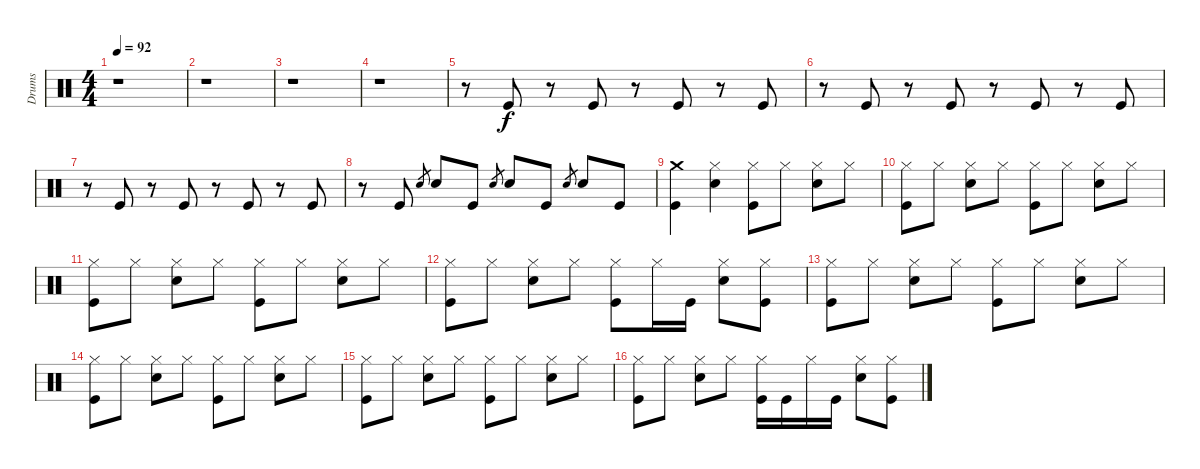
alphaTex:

\track ("Drums" "Drums") {instrument percussion}
\staff {score}
\articulation defaults
\ts (4 4)
\tempo 92
\clef neutral
\ks c
r.1{dy f} |
r.1 |
r.1 |
r.1 |
r.8 "Kick (hit)".8 r.8 "Kick (hit)".8 r.8 "Kick (hit)".8 r.8 "Kick (hit)".8 |
r.8 "Kick (hit)".8 r.8 "Kick (hit)".8 r.8 "Kick (hit)".8 r.8 "Kick (hit)".8 |
r.8 "Kick (hit)".8 r.8 "Kick (hit)".8 r.8 "Kick (hit)".8 r.8 "Kick (hit)".8 |
r.8 "Kick (hit)".8 "Electric Snare (hit)".8{gr} "Electric Snare (hit)".8 "Kick (hit)".8 "Electric Snare (hit)".8{gr} "Electric Snare (hit)".8 "Kick (hit)".8 "Electric Snare (hit)".8{gr} "Electric Snare (hit)".8 "Kick (hit)".8 |
("Kick (hit)" "Crash medium (hit)").4 ("Electric Snare (hit)" "Hi-Hat (closed)").4 ("Kick (hit)" "Hi-Hat (closed)").8 "Hi-Hat (closed)".8 ("Electric Snare (hit)" "Hi-Hat (closed)").8 "Hi-Hat (closed)".8 |
("Kick (hit)" "Hi-Hat (closed)").8 "Hi-Hat (closed)".8 ("Electric Snare (hit)" "Hi-Hat (closed)").8 "Hi-Hat (closed)".8 ("Kick (hit)" "Hi-Hat (closed)").8 "Hi-Hat (closed)".8 ("Electric Snare (hit)" "Hi-Hat (closed)").8 "Hi-Hat (closed)".8 |
("Kick (hit)" "Hi-Hat (closed)").8 "Hi-Hat (closed)".8 ("Electric Snare (hit)" "Hi-Hat (closed)").8 "Hi-Hat (closed)".8 ("Kick (hit)" "Hi-Hat (closed)").8 "Hi-Hat (closed)".8 ("Electric Snare (hit)" "Hi-Hat (closed)").8 "Hi-Hat (closed)".8 |
("Kick (hit)" "Hi-Hat (closed)").8 "Hi-Hat (closed)".8 ("Electric Snare (hit)" "Hi-Hat (closed)").8 "Hi-Hat (closed)".8 ("Kick (hit)" "Hi-Hat (closed)").8 "Hi-Hat (closed)".16 "Kick (hit)".16 ("Electric Snare (hit)" "Hi-Hat (closed)").8 ("Kick (hit)" "Hi-Hat (closed)").8 |
("Kick (hit)" "Hi-Hat (closed)").8 "Hi-Hat (closed)".8 ("Electric Snare (hit)" "Hi-Hat (closed)").8 "Hi-Hat (closed)".8 ("Kick (hit)" "Hi-Hat (closed)").8 "Hi-Hat (closed)".8 ("Electric Snare (hit)" "Hi-Hat (closed)").8 "Hi-Hat (closed)".8 |
("Kick (hit)" "Hi-Hat (closed)").8 "Hi-Hat (closed)".8 ("Electric Snare (hit)" "Hi-Hat (closed)").8 "Hi-Hat (closed)".8 ("Kick (hit)" "Hi-Hat (closed)").8 "Hi-Hat (closed)".8 ("Electric Snare (hit)" "Hi-Hat (closed)").8 "Hi-Hat (closed)".8 |
("Kick (hit)" "Hi-Hat (closed)").8 "Hi-Hat (closed)".8 ("Electric Snare (hit)" "Hi-Hat (closed)").8 "Hi-Hat (closed)".8 ("Kick (hit)" "Hi-Hat (closed)").8 "Hi-Hat (closed)".8 ("Electric Snare (hit)" "Hi-Hat (closed)").8 "Hi-Hat (closed)".8 |
("Kick (hit)" "Hi-Hat (closed)").8 "Hi-Hat (closed)".8 ("Electric Snare (hit)" "Hi-Hat (closed)").8 "Hi-Hat (closed)".8 ("Kick (hit)" "Hi-Hat (closed)").16 "Kick (hit)".16 "Hi-Hat (closed)".16 "Kick (hit)".16 ("Electric Snare (hit)" "Hi-Hat (closed)").8 ("Kick (hit)" "Hi-Hat (closed)").8
